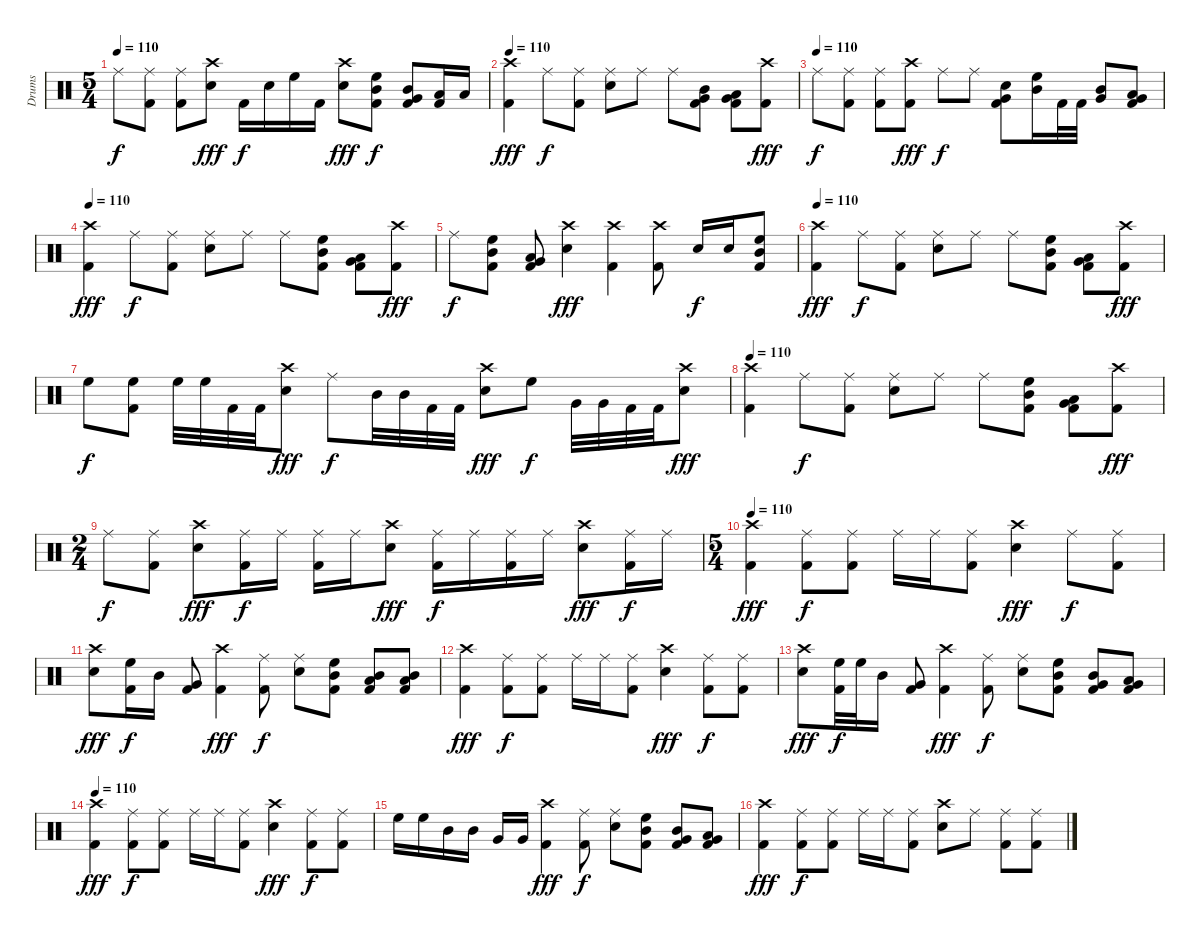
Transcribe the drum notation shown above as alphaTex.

\track ("Drums" "Drums") {instrument percussion}
\staff {score}
\articulation defaults
\ts (5 4)
\tempo 110
\clef neutral
\ks c "Ride (middle)".8{dy f}
("Ride (middle)" "Kick (hit) 2").8 ("Ride (middle)" "Kick (hit) 2").8 ("Crash high (hit)" "Snare (hit) 2").8{dy fff} "Kick (hit) 2".16{dy f} "Snare (hit) 2".16 "High Floor Tom (hit)".16 "Kick (hit) 2".16 ("Crash high (hit)" "Snare (hit) 2").8{dy fff} ("High Floor Tom (hit)" "Mid Tom (hit)" "Kick (hit) 2").8{dy f} ("Mid Tom (hit)" "Very Low Tom (hit)" "Kick (hit) 2").8 ("Low Floor Tom (hit)" "Kick (hit) 2").16 "Low Floor Tom (hit)".16 |
\tempo 110
("Crash high (hit)" "Kick (hit) 2").4{dy fff} "Ride (middle)".8{dy f} ("Ride (middle)" "Kick (hit) 2").8 ("Ride (middle)" "Snare (hit) 2").8 "Ride (middle)".8 "Ride (middle)".8 ("Mid Tom (hit)" "Very Low Tom (hit)" "Kick (hit) 2").8 ("Kick (hit) 2" "Low Floor Tom (hit)" "Very Low Tom (hit)").8 ("Crash high (hit)" "Kick (hit) 2").8{dy fff} |
\tempo (110)
"Ride (middle)".8{dy f} ("Ride (middle)" "Kick (hit) 2").8 ("Ride (middle)" "Kick (hit) 2").8 ("Crash high (hit)" "Kick (hit) 2").8{dy fff} "Ride (middle)".8{dy f} "Ride (middle)".8 ("Snare (hit) 2" "Very Low Tom (hit)" "Kick (hit) 2").8 ("High Floor Tom (hit)" "Mid Tom (hit)").16 "Kick (hit) 2".32 "Kick (hit) 2".32 ("Mid Tom (hit)" "Very Low Tom (hit)").8 ("Low Floor Tom (hit)" "Very Low Tom (hit)" "Kick (hit) 2").8 |
\tempo 110
("Crash high (hit)" "Kick (hit) 2").4{dy fff} "Ride (middle)".8{dy f} ("Ride (middle)" "Kick (hit) 2").8 ("Ride (middle)" "Snare (hit) 2").8 "Ride (middle)".8 "Ride (middle)".8 ("Mid Tom (hit)" "High Floor Tom (hit)" "Kick (hit) 2").8 ("Very Low Tom (hit)" "Low Floor Tom (hit)" "Kick (hit) 2").8 ("Crash high (hit)" "Kick (hit) 2").8{dy fff} |
"Ride (middle)".8{dy f} ("Kick (hit) 2" "Mid Tom (hit)" "High Floor Tom (hit)").8 ("Very Low Tom (hit)" "Low Floor Tom (hit)" "Kick (hit) 2").8 ("Crash high (hit)" "Snare (hit) 2").4{dy fff} ("Crash high (hit)" "Kick (hit) 2").4 ("Crash high (hit)" "Kick (hit) 2").8 "Snare (hit) 2".16{dy f} "Snare (hit) 2".16 ("Kick (hit) 2" "Mid Tom (hit)" "High Floor Tom (hit)").8 |
\tempo 110
("Crash high (hit)" "Kick (hit) 2").4{dy fff} "Ride (middle)".8{dy f} ("Ride (middle)" "Kick (hit) 2").8 ("Ride (middle)" "Snare (hit) 2").8 "Ride (middle)".8 "Ride (middle)".8 ("High Floor Tom (hit)" "Mid Tom (hit)" "Kick (hit) 2").8 ("Very Low Tom (hit)" "Low Floor Tom (hit)" "Kick (hit) 2").8 ("Crash high (hit)" "Kick (hit) 2").8{dy fff} |
"High Floor Tom (hit)".8{dy f} ("High Floor Tom (hit)" "Kick (hit) 2").8 "High Floor Tom (hit)".32 "High Floor Tom (hit)".32 "Kick (hit) 2".32 "Kick (hit) 2".32 ("Crash high (hit)" "Snare (hit) 2").8{dy fff} "Ride (middle)".8{dy f} "Mid Tom (hit)".32 "Mid Tom (hit)".32 "Kick (hit) 2".32 "Kick (hit) 2".32 ("Crash high (hit)" "Snare (hit) 2").8{dy fff} "High Floor Tom (hit)".8{dy f} "Very Low Tom (hit)".32 "Very Low Tom (hit)".32 "Kick (hit) 2".32 "Kick (hit) 2".32 ("Crash high (hit)" "Snare (hit) 2").8{dy fff} |
\tempo 110
("Crash high (hit)" "Kick (hit) 2").4 "Ride (middle)".8{dy f} ("Ride (middle)" "Kick (hit) 2").8 ("Ride (middle)" "Snare (hit) 2").8 "Ride (middle)".8 "Ride (middle)".8 ("Mid Tom (hit)" "High Floor Tom (hit)" "Kick (hit) 2").8 ("Kick (hit) 2" "Very Low Tom (hit)" "Low Floor Tom (hit)").8 ("Crash high (hit)" "Kick (hit) 2").8{dy fff} |
\ts (2 4)
"Ride (middle)".8{dy f} ("Ride (middle)" "Kick (hit) 2").8 ("Crash high (hit)" "Snare (hit) 2").8{dy fff} ("Ride (middle)" "Kick (hit) 2").16{dy f} "Ride (middle)".16 ("Ride (middle)" "Kick (hit) 2").16 "Ride (middle)".16 ("Crash high (hit)" "Snare (hit) 2").8{dy fff} ("Ride (middle)" "Kick (hit) 2").16{dy f} "Ride (middle)".16 ("Ride (middle)" "Kick (hit) 2").16 "Ride (middle)".16 ("Crash high (hit)" "Snare (hit) 2").8{dy fff} ("Ride (middle)" "Kick (hit) 2").16{dy f} "Ride (middle)".16 |
\ts (5 4)
\tempo 110
("Crash high (hit)" "Kick (hit) 2").4{dy fff} ("Ride (middle)" "Kick (hit) 2").8{dy f} ("Ride (middle)" "Kick (hit) 2").8 "Ride (middle)".16 "Ride (middle)".16 ("Ride (middle)" "Kick (hit) 2").8 ("Crash high (hit)" "Snare (hit) 2").4{dy fff} "Ride (middle)".8{dy f} ("Ride (middle)" "Kick (hit) 2").8 |
("Crash high (hit)" "Snare (hit) 2").8{dy fff} ("High Floor Tom (hit)" "Kick (hit) 2").16{dy f} "Mid Tom (hit)".16 ("Very Low Tom (hit)" "Kick (hit) 2").8 ("Crash high (hit)" "Kick (hit) 2").4{dy fff} ("Ride (middle)" "Kick (hit) 2").8{dy f} ("Ride (middle)" "Snare (hit) 2").8 ("High Floor Tom (hit)" "Mid Tom (hit)" "Kick (hit) 2").8 ("Kick (hit) 2" "Mid Tom (hit)" "Low Floor Tom (hit)").8 ("Mid Tom (hit)" "Low Floor Tom (hit)" "Kick (hit) 2").8 |
("Kick (hit) 2" "Crash high (hit)").4{dy fff} ("Ride (middle)" "Kick (hit) 2").8{dy f} ("Ride (middle)" "Kick (hit) 2").8 "Ride (middle)".16 "Ride (middle)".16 ("Kick (hit) 2" "Ride (middle)").8 ("Crash high (hit)" "Snare (hit) 2").4{dy fff} ("Ride (middle)" "Kick (hit) 2").8{dy f} ("Ride (middle)" "Kick (hit) 2").8 |
("Crash high (hit)" "Snare (hit) 2").8{dy fff} ("High Floor Tom (hit)" "Kick (hit) 2").32{dy f} "High Floor Tom (hit)".32 "Mid Tom (hit)".16 ("Very Low Tom (hit)" "Kick (hit) 2").8 ("Crash high (hit)" "Kick (hit) 2").4{dy fff} ("Kick (hit) 2" "Ride (middle)").8{dy f} ("Ride (middle)" "Snare (hit) 2").8 ("Kick (hit) 2" "Mid Tom (hit)" "High Floor Tom (hit)").8 ("Mid Tom (hit)" "Very Low Tom (hit)" "Kick (hit) 2").8 ("Kick (hit) 2" "Low Floor Tom (hit)" "Very Low Tom (hit)").8 |
\tempo 110
("Crash high (hit)" "Kick (hit) 2").4{dy fff} ("Ride (middle)" "Kick (hit) 2").8{dy f} ("Ride (middle)" "Kick (hit) 2").8 "Ride (middle)".16 "Ride (middle)".16 ("Ride (middle)" "Kick (hit) 2").8 ("Crash high (hit)" "Snare (hit) 2").4{dy fff} ("Ride (middle)" "Kick (hit) 2").8{dy f} ("Ride (middle)" "Kick (hit) 2").8 |
"High Floor Tom (hit)".16 "High Floor Tom (hit)".16 "Mid Tom (hit)".16 "Mid Tom (hit)".16 "Very Low Tom (hit)".16 "Very Low Tom (hit)".16 ("Crash high (hit)" "Kick (hit) 2").4{dy fff} ("Ride (middle)" "Kick (hit) 2").8{dy f} ("Ride (middle)" "Snare (hit) 2").8 ("High Floor Tom (hit)" "Mid Tom (hit)" "Kick (hit) 2").8 ("Kick (hit) 2" "Very Low Tom (hit)" "Mid Tom (hit)").8 ("Low Floor Tom (hit)" "Very Low Tom (hit)" "Kick (hit) 2").8 |
("Crash high (hit)" "Kick (hit) 2").4{dy fff} ("Ride (middle)" "Kick (hit) 2").8{dy f} ("Ride (middle)" "Kick (hit) 2").8 "Ride (middle)".16 "Ride (middle)".16 ("Ride (middle)" "Kick (hit) 2").8 ("Crash high (hit)" "Snare (hit) 2").8 "Ride (middle)".8 ("Ride (middle)" "Kick (hit) 2").8 ("Ride (middle)" "Kick (hit) 2").8
